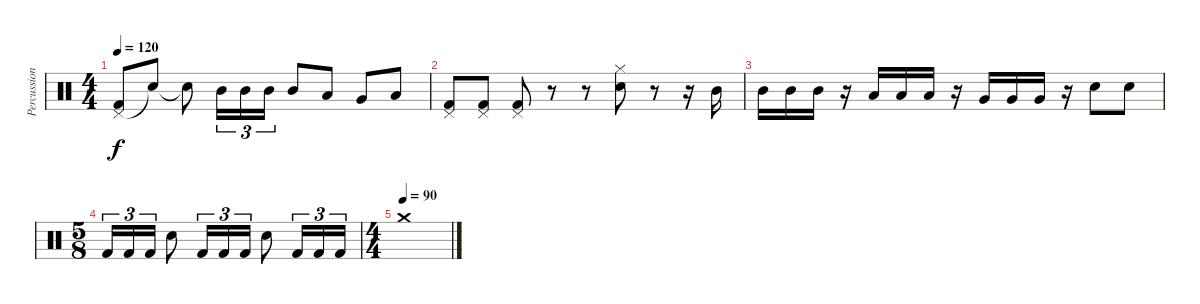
\track ("Percussion" "Percussion") {instrument percussion}
\staff {score}
\articulation defaults
\ts (4 4)
\tempo 120
\clef neutral
\ks c
("Pedal Hi-Hat (hit)" "Kick (hit) 2").8{dy f} "Snare (hit)"{t}.8 "Snare (hit)"{t}.8 "Mid Tom (hit)".16{tu (3 2)} "Mid Tom (hit)".16{tu (3 2)} "Mid Tom (hit)".16{tu (3 2)} "Mid Tom (hit)".8 "Low Tom (hit)".8 "Very Low Tom (hit)".8 "Low Floor Tom (hit)".8 |
("Pedal Hi-Hat (hit)" "Kick (hit) 2").8 ("Pedal Hi-Hat (hit)" "Kick (hit) 2").8 ("Pedal Hi-Hat (hit)" "Kick (hit) 2").8 r.8 r.8 ("Hi-Hat (closed)" "Snare (hit) 2").8 r.8 r.16 "Mid Tom (hit)".16 |
"Mid Tom (hit)".16 "Mid Tom (hit)".16 "Mid Tom (hit)".16 r.16 "Low Tom (hit)".16 "Low Tom (hit)".16 "Low Tom (hit)".16 r.16 "Very Low Tom (hit)".16 "Very Low Tom (hit)".16 "Very Low Tom (hit)".16 r.16 "Snare (hit) 2".8 "Snare (hit) 2".8 |
\ts (5 8)
"Kick (hit) 2".16{tu (3 2)} "Kick (hit) 2".16{tu (3 2)} "Kick (hit) 2".16{tu (3 2)} "Snare (hit) 2".8 "Kick (hit) 2".16{tu (3 2)} "Kick (hit) 2".16{tu (3 2)} "Kick (hit) 2".16{tu (3 2)} "Snare (hit) 2".8 "Kick (hit) 2".16{tu (3 2)} "Kick (hit) 2".16{tu (3 2)} "Kick (hit) 2".16{tu (3 2)} |
\ts (4 4)
\tempo (90)
"Crash medium (hit)".1
